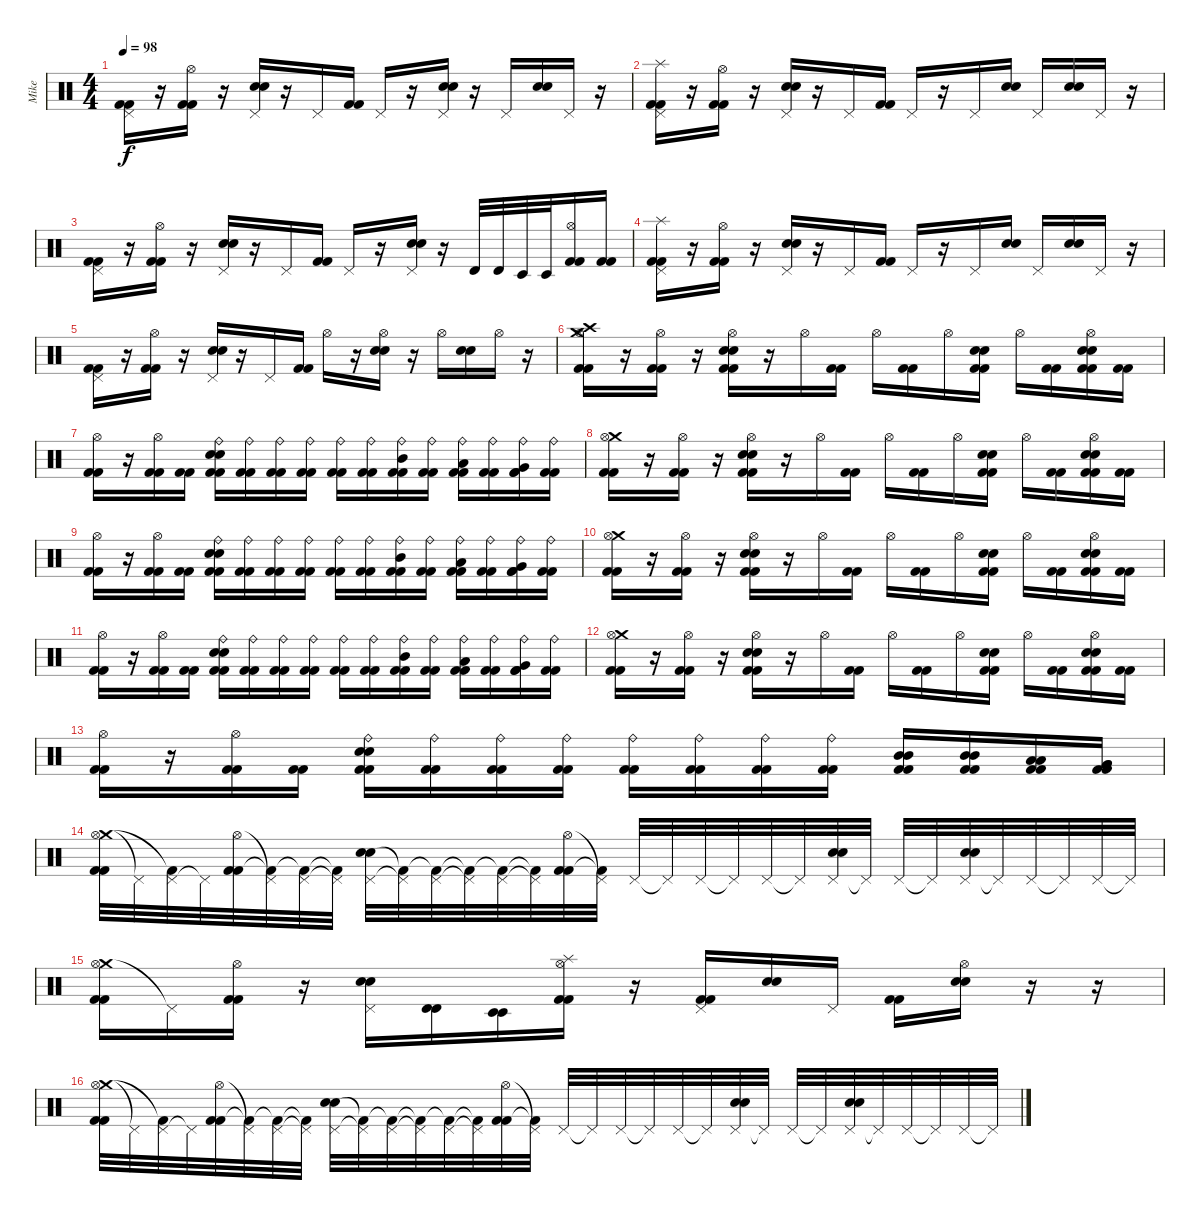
\track ("Mike" "Mike") {instrument percussion}
\staff {score}
\articulation defaults
\ts (4 4)
\tempo 98
\clef neutral
\ks c
("Pedal Hi-Hat (hit)" "Kick (hit) 2" "Kick (hit) 2").16{dy f} r.16 ("Hi-Hat (open)" "Kick (hit) 2" "Kick (hit) 2").16 r.16 ("Pedal Hi-Hat (hit)" "Electric Snare (hit)" "Electric Snare (hit)").16 r.16 "Pedal Hi-Hat (hit)".16 ("Kick (hit) 2" "Kick (hit) 2").16 "Pedal Hi-Hat (hit)".16 r.16 ("Pedal Hi-Hat (hit)" "Electric Snare (hit)" "Electric Snare (hit)").16 r.16 "Pedal Hi-Hat (hit)".16 ("Electric Snare (hit)" "Electric Snare (hit)").16 "Pedal Hi-Hat (hit)".16 r.16 |
("Splash (hit)" "Pedal Hi-Hat (hit)" "Kick (hit) 2" "Kick (hit) 2").16 r.16 ("Hi-Hat (open)" "Kick (hit) 2" "Kick (hit) 2").16 r.16 ("Pedal Hi-Hat (hit)" "Electric Snare (hit)" "Electric Snare (hit)").16 r.16 "Pedal Hi-Hat (hit)".16 ("Kick (hit) 2" "Kick (hit) 2").16 "Pedal Hi-Hat (hit)".16 r.16 "Pedal Hi-Hat (hit)".16 ("Electric Snare (hit)" "Electric Snare (hit)").16 "Pedal Hi-Hat (hit)".16 ("Electric Snare (hit)" "Electric Snare (hit)").16 "Pedal Hi-Hat (hit)".16 r.16 |
("Pedal Hi-Hat (hit)" "Kick (hit) 2" "Kick (hit) 2").16 r.16 ("Hi-Hat (open)" "Kick (hit) 2" "Kick (hit) 2").16 r.16 ("Pedal Hi-Hat (hit)" "Electric Snare (hit)" "Electric Snare (hit)").16 r.16 "Pedal Hi-Hat (hit)".16 ("Kick (hit) 2" "Kick (hit) 2").16 "Pedal Hi-Hat (hit)".16 r.16 ("Pedal Hi-Hat (hit)" "Electric Snare (hit)" "Electric Snare (hit)").16 r.16 "Timbale high (hit)".32 "Timbale high (hit)".32 "Timbale low (hit)".32 "Timbale low (hit)".32 ("Hi-Hat (open)" "Kick (hit) 2" "Kick (hit) 2").16 ("Kick (hit) 2" "Kick (hit) 2").16 |
("Splash (hit)" "Pedal Hi-Hat (hit)" "Kick (hit) 2" "Kick (hit) 2").16 r.16 ("Hi-Hat (open)" "Kick (hit) 2" "Kick (hit) 2").16 r.16 ("Pedal Hi-Hat (hit)" "Electric Snare (hit)" "Electric Snare (hit)").16 r.16 "Pedal Hi-Hat (hit)".16 ("Kick (hit) 2" "Kick (hit) 2").16 "Pedal Hi-Hat (hit)".16 r.16 "Pedal Hi-Hat (hit)".16 ("Electric Snare (hit)" "Electric Snare (hit)").16 "Pedal Hi-Hat (hit)".16 ("Electric Snare (hit)" "Electric Snare (hit)").16 "Pedal Hi-Hat (hit)".16 r.16 |
("Pedal Hi-Hat (hit)" "Kick (hit) 2" "Kick (hit) 2").16 r.16 ("Hi-Hat (open)" "Kick (hit) 2" "Kick (hit) 2").16 r.16 ("Pedal Hi-Hat (hit)" "Electric Snare (hit)" "Electric Snare (hit)").16 r.16 "Pedal Hi-Hat (hit)".16 ("Kick (hit) 2" "Kick (hit) 2").16 "Hi-Hat (open)".16 r.16 ("Hi-Hat (open)" "Electric Snare (hit)" "Electric Snare (hit)").16 r.16 "Hi-Hat (open)".16 ("Electric Snare (hit)" "Electric Snare (hit)").16 "Hi-Hat (open)".16 r.16 |
("Crash medium (hit)" "Hi-Hat (open)" "Crash high (hit)" "Kick (hit) 2" "Kick (hit) 2").16 r.16 ("Hi-Hat (open)" "Kick (hit) 2" "Kick (hit) 2").16 r.16 ("Hi-Hat (open)" "Electric Snare (hit)" "Electric Snare (hit)" "Kick (hit) 2" "Kick (hit) 2").16 r.16 "Hi-Hat (open)".16 ("Kick (hit) 2" "Kick (hit) 2").16 "Hi-Hat (open)".16 ("Kick (hit) 2" "Kick (hit) 2").16 "Hi-Hat (open)".16 ("Electric Snare (hit)" "Electric Snare (hit)" "Kick (hit) 2" "Kick (hit) 2").16 "Hi-Hat (open)".16 ("Kick (hit) 2" "Kick (hit) 2").16 ("Hi-Hat (open)" "Electric Snare (hit)" "Electric Snare (hit)" "Kick (hit) 2" "Kick (hit) 2").16 ("Kick (hit) 2" "Kick (hit) 2").16 |
("Hi-Hat (open)" "Kick (hit) 2" "Kick (hit) 2").16 r.16 ("Hi-Hat (open)" "Kick (hit) 2" "Kick (hit) 2").16 ("Kick (hit) 2" "Kick (hit) 2").16 ("Ride (bell)" "Electric Snare (hit)" "Electric Snare (hit)" "Kick (hit) 2" "Kick (hit) 2").16 ("Ride (bell)" "Kick (hit) 2" "Kick (hit) 2").16 ("Ride (bell)" "Kick (hit) 2" "Kick (hit) 2").16 ("Ride (bell)" "Kick (hit) 2" "Kick (hit) 2").16 ("Ride (bell)" "Kick (hit) 2" "Kick (hit) 2").16 ("Ride (bell)" "Kick (hit) 2" "Kick (hit) 2").16 ("Ride (bell)" "Mid Tom (hit)" "Kick (hit) 2" "Kick (hit) 2").16 ("Ride (bell)" "Kick (hit) 2" "Kick (hit) 2").16 ("Ride (bell)" "Low Tom (hit)" "Kick (hit) 2" "Kick (hit) 2").16 ("Ride (bell)" "Kick (hit) 2" "Kick (hit) 2").16 ("Ride (bell)" "Very Low Tom (hit)" "Kick (hit) 2" "Kick (hit) 2").16 ("Ride (bell)" "Kick (hit) 2" "Kick (hit) 2").16 |
("Crash medium (hit)" "Hi-Hat (open)" "Kick (hit) 2" "Kick (hit) 2").16 r.16 ("Hi-Hat (open)" "Kick (hit) 2" "Kick (hit) 2").16 r.16 ("Hi-Hat (open)" "Electric Snare (hit)" "Electric Snare (hit)" "Kick (hit) 2" "Kick (hit) 2").16 r.16 "Hi-Hat (open)".16 ("Kick (hit) 2" "Kick (hit) 2").16 "Hi-Hat (open)".16 ("Kick (hit) 2" "Kick (hit) 2").16 "Hi-Hat (open)".16 ("Electric Snare (hit)" "Electric Snare (hit)" "Kick (hit) 2" "Kick (hit) 2").16 "Hi-Hat (open)".16 ("Kick (hit) 2" "Kick (hit) 2").16 ("Hi-Hat (open)" "Electric Snare (hit)" "Electric Snare (hit)" "Kick (hit) 2" "Kick (hit) 2").16 ("Kick (hit) 2" "Kick (hit) 2").16 |
("Hi-Hat (open)" "Kick (hit) 2" "Kick (hit) 2").16 r.16 ("Hi-Hat (open)" "Kick (hit) 2" "Kick (hit) 2").16 ("Kick (hit) 2" "Kick (hit) 2").16 ("Ride (bell)" "Electric Snare (hit)" "Electric Snare (hit)" "Kick (hit) 2" "Kick (hit) 2").16 ("Ride (bell)" "Kick (hit) 2" "Kick (hit) 2").16 ("Ride (bell)" "Kick (hit) 2" "Kick (hit) 2").16 ("Ride (bell)" "Kick (hit) 2" "Kick (hit) 2").16 ("Ride (bell)" "Kick (hit) 2" "Kick (hit) 2").16 ("Ride (bell)" "Kick (hit) 2" "Kick (hit) 2").16 ("Ride (bell)" "Mid Tom (hit)" "Kick (hit) 2" "Kick (hit) 2").16 ("Ride (bell)" "Kick (hit) 2" "Kick (hit) 2").16 ("Ride (bell)" "Low Tom (hit)" "Kick (hit) 2" "Kick (hit) 2").16 ("Ride (bell)" "Kick (hit) 2" "Kick (hit) 2").16 ("Ride (bell)" "Very Low Tom (hit)" "Kick (hit) 2" "Kick (hit) 2").16 ("Ride (bell)" "Kick (hit) 2" "Kick (hit) 2").16 |
("Crash medium (hit)" "Hi-Hat (open)" "Kick (hit) 2" "Kick (hit) 2").16 r.16 ("Hi-Hat (open)" "Kick (hit) 2" "Kick (hit) 2").16 r.16 ("Hi-Hat (open)" "Electric Snare (hit)" "Electric Snare (hit)" "Kick (hit) 2" "Kick (hit) 2").16 r.16 "Hi-Hat (open)".16 ("Kick (hit) 2" "Kick (hit) 2").16 "Hi-Hat (open)".16 ("Kick (hit) 2" "Kick (hit) 2").16 "Hi-Hat (open)".16 ("Electric Snare (hit)" "Electric Snare (hit)" "Kick (hit) 2" "Kick (hit) 2").16 "Hi-Hat (open)".16 ("Kick (hit) 2" "Kick (hit) 2").16 ("Hi-Hat (open)" "Electric Snare (hit)" "Electric Snare (hit)" "Kick (hit) 2" "Kick (hit) 2").16 ("Kick (hit) 2" "Kick (hit) 2").16 |
("Hi-Hat (open)" "Kick (hit) 2" "Kick (hit) 2").16 r.16 ("Hi-Hat (open)" "Kick (hit) 2" "Kick (hit) 2").16 ("Kick (hit) 2" "Kick (hit) 2").16 ("Ride (bell)" "Electric Snare (hit)" "Electric Snare (hit)" "Kick (hit) 2" "Kick (hit) 2").16 ("Ride (bell)" "Kick (hit) 2" "Kick (hit) 2").16 ("Ride (bell)" "Kick (hit) 2" "Kick (hit) 2").16 ("Ride (bell)" "Kick (hit) 2" "Kick (hit) 2").16 ("Ride (bell)" "Kick (hit) 2" "Kick (hit) 2").16 ("Ride (bell)" "Kick (hit) 2" "Kick (hit) 2").16 ("Ride (bell)" "Mid Tom (hit)" "Kick (hit) 2" "Kick (hit) 2").16 ("Ride (bell)" "Kick (hit) 2" "Kick (hit) 2").16 ("Ride (bell)" "Low Tom (hit)" "Kick (hit) 2" "Kick (hit) 2").16 ("Ride (bell)" "Kick (hit) 2" "Kick (hit) 2").16 ("Ride (bell)" "Very Low Tom (hit)" "Kick (hit) 2" "Kick (hit) 2").16 ("Ride (bell)" "Kick (hit) 2" "Kick (hit) 2").16 |
("Crash medium (hit)" "Hi-Hat (open)" "Kick (hit) 2" "Kick (hit) 2").16 r.16 ("Hi-Hat (open)" "Kick (hit) 2" "Kick (hit) 2").16 r.16 ("Hi-Hat (open)" "Electric Snare (hit)" "Electric Snare (hit)" "Kick (hit) 2" "Kick (hit) 2").16 r.16 "Hi-Hat (open)".16 ("Kick (hit) 2" "Kick (hit) 2").16 "Hi-Hat (open)".16 ("Kick (hit) 2" "Kick (hit) 2").16 "Hi-Hat (open)".16 ("Electric Snare (hit)" "Electric Snare (hit)" "Kick (hit) 2" "Kick (hit) 2").16 "Hi-Hat (open)".16 ("Kick (hit) 2" "Kick (hit) 2").16 ("Hi-Hat (open)" "Electric Snare (hit)" "Electric Snare (hit)" "Kick (hit) 2" "Kick (hit) 2").16 ("Kick (hit) 2" "Kick (hit) 2").16 |
("Hi-Hat (open)" "Kick (hit) 2" "Kick (hit) 2").16 r.16 ("Hi-Hat (open)" "Kick (hit) 2" "Kick (hit) 2").16 ("Kick (hit) 2" "Kick (hit) 2").16 ("Ride (bell)" "Electric Snare (hit)" "Electric Snare (hit)" "Kick (hit) 2" "Kick (hit) 2").16 ("Ride (bell)" "Kick (hit) 2" "Kick (hit) 2").16 ("Ride (bell)" "Kick (hit) 2" "Kick (hit) 2").16 ("Ride (bell)" "Kick (hit) 2" "Kick (hit) 2").16 ("Ride (bell)" "Kick (hit) 2" "Kick (hit) 2").16 ("Ride (bell)" "Kick (hit) 2" "Kick (hit) 2").16 ("Ride (bell)" "Kick (hit) 2" "Kick (hit) 2").16 ("Ride (bell)" "Kick (hit) 2" "Kick (hit) 2").16 ("Mid Tom (hit)" "Mid Tom (hit)" "Kick (hit) 2" "Kick (hit) 2").16 ("Mid Tom (hit)" "Mid Tom (hit)" "Kick (hit) 2" "Kick (hit) 2").16 ("Low Tom (hit)" "Low Tom (hit)" "Kick (hit) 2" "Kick (hit) 2").16 ("Very Low Tom (hit)" "Very Low Tom (hit)" "Kick (hit) 2" "Kick (hit) 2").16 |
("Crash medium (hit)" "Hi-Hat (open)" "Kick (hit) 2" "Kick (hit) 2").32 "Pedal Hi-Hat (hit)"{t}.32 ("Pedal Hi-Hat (hit)" "Kick (hit) 2"{t}).32 "Pedal Hi-Hat (hit)"{t}.32 ("Hi-Hat (open)" "Kick (hit) 2" "Kick (hit) 2").32 ("Pedal Hi-Hat (hit)"{t} "Kick (hit) 2"{t}).32 ("Pedal Hi-Hat (hit)" "Kick (hit) 2"{t}).32 ("Pedal Hi-Hat (hit)"{t} "Kick (hit) 2"{t}).32 ("Pedal Hi-Hat (hit)" "Electric Snare (hit)" "Electric Snare (hit)").32 ("Pedal Hi-Hat (hit)"{t} "Kick (hit) 2"{t}).32 ("Pedal Hi-Hat (hit)" "Kick (hit) 2"{t}).32 ("Pedal Hi-Hat (hit)"{t} "Kick (hit) 2"{t}).32 ("Pedal Hi-Hat (hit)" "Kick (hit) 2"{t}).32 ("Pedal Hi-Hat (hit)"{t} "Kick (hit) 2"{t}).32 ("Hi-Hat (open)" "Kick (hit) 2" "Kick (hit) 2").32 ("Pedal Hi-Hat (hit)"{t} "Kick (hit) 2"{t}).32 "Pedal Hi-Hat (hit)".32 "Pedal Hi-Hat (hit)"{t}.32 "Pedal Hi-Hat (hit)".32 "Pedal Hi-Hat (hit)"{t}.32 "Pedal Hi-Hat (hit)".32 "Pedal Hi-Hat (hit)"{t}.32 ("Pedal Hi-Hat (hit)" "Electric Snare (hit)" "Electric Snare (hit)").32 "Pedal Hi-Hat (hit)"{t}.32 "Pedal Hi-Hat (hit)".32 "Pedal Hi-Hat (hit)"{t}.32 ("Pedal Hi-Hat (hit)" "Electric Snare (hit)" "Electric Snare (hit)").32 "Pedal Hi-Hat (hit)"{t}.32 "Pedal Hi-Hat (hit)".32 "Pedal Hi-Hat (hit)"{t}.32 "Pedal Hi-Hat (hit)".32 "Pedal Hi-Hat (hit)"{t}.32 |
("Crash medium (hit)" "Hi-Hat (open)" "Kick (hit) 2" "Kick (hit) 2").16 "Pedal Hi-Hat (hit)"{t}.16 ("Hi-Hat (open)" "Kick (hit) 2" "Kick (hit) 2").16 r.16 ("Pedal Hi-Hat (hit)" "Electric Snare (hit)" "Electric Snare (hit)").16 ("Timbale high (hit)" "Timbale high (hit)").16 ("Timbale low (hit)" "Timbale low (hit)").16 ("Splash (hit)" "Hi-Hat (open)" "Kick (hit) 2" "Kick (hit) 2").16 r.16 ("Pedal Hi-Hat (hit)" "Kick (hit) 2" "Kick (hit) 2").16 ("Electric Snare (hit)" "Electric Snare (hit)").16 "Pedal Hi-Hat (hit)".16 ("Kick (hit) 2" "Kick (hit) 2").16 ("Hi-Hat (open)" "Electric Snare (hit)" "Electric Snare (hit)").16 r.16 r.16 |
("Crash medium (hit)" "Hi-Hat (open)" "Kick (hit) 2" "Kick (hit) 2").32 "Pedal Hi-Hat (hit)"{t}.32 ("Pedal Hi-Hat (hit)" "Kick (hit) 2"{t}).32 "Pedal Hi-Hat (hit)"{t}.32 ("Hi-Hat (open)" "Kick (hit) 2" "Kick (hit) 2").32 ("Pedal Hi-Hat (hit)"{t} "Kick (hit) 2"{t}).32 ("Pedal Hi-Hat (hit)" "Kick (hit) 2"{t}).32 ("Pedal Hi-Hat (hit)"{t} "Kick (hit) 2"{t}).32 ("Pedal Hi-Hat (hit)" "Electric Snare (hit)" "Electric Snare (hit)").32 ("Pedal Hi-Hat (hit)"{t} "Kick (hit) 2"{t}).32 ("Pedal Hi-Hat (hit)" "Kick (hit) 2"{t}).32 ("Pedal Hi-Hat (hit)"{t} "Kick (hit) 2"{t}).32 ("Pedal Hi-Hat (hit)" "Kick (hit) 2"{t}).32 ("Pedal Hi-Hat (hit)"{t} "Kick (hit) 2"{t}).32 ("Hi-Hat (open)" "Kick (hit) 2" "Kick (hit) 2").32 ("Pedal Hi-Hat (hit)"{t} "Kick (hit) 2"{t}).32 "Pedal Hi-Hat (hit)".32 "Pedal Hi-Hat (hit)"{t}.32 "Pedal Hi-Hat (hit)".32 "Pedal Hi-Hat (hit)"{t}.32 "Pedal Hi-Hat (hit)".32 "Pedal Hi-Hat (hit)"{t}.32 ("Pedal Hi-Hat (hit)" "Electric Snare (hit)" "Electric Snare (hit)").32 "Pedal Hi-Hat (hit)"{t}.32 "Pedal Hi-Hat (hit)".32 "Pedal Hi-Hat (hit)"{t}.32 ("Pedal Hi-Hat (hit)" "Electric Snare (hit)" "Electric Snare (hit)").32 "Pedal Hi-Hat (hit)"{t}.32 "Pedal Hi-Hat (hit)".32 "Pedal Hi-Hat (hit)"{t}.32 "Pedal Hi-Hat (hit)".32 "Pedal Hi-Hat (hit)"{t}.32
